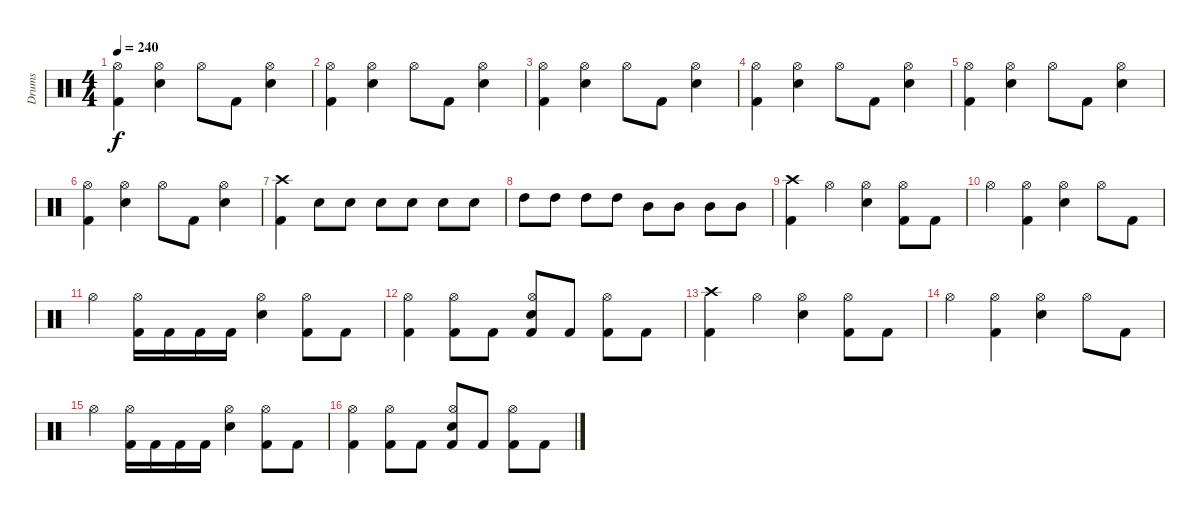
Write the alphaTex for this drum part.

\track ("Drums" "Drums") {instrument percussion}
\staff {score}
\articulation defaults
\ts (4 4)
\tempo 240
\clef neutral
\ks c
("Kick (hit) 2" "Hi-Hat (open)").4{dy f} ("Electric Snare (hit)" "Hi-Hat (open)").4 "Hi-Hat (open)".8 "Kick (hit) 2".8 ("Electric Snare (hit)" "Hi-Hat (open)").4 |
("Kick (hit) 2" "Hi-Hat (open)").4 ("Electric Snare (hit)" "Hi-Hat (open)").4 "Hi-Hat (open)".8 "Kick (hit) 2".8 ("Electric Snare (hit)" "Hi-Hat (open)").4 |
("Kick (hit) 2" "Hi-Hat (open)").4 ("Electric Snare (hit)" "Hi-Hat (open)").4 "Hi-Hat (open)".8 "Kick (hit) 2".8 ("Electric Snare (hit)" "Hi-Hat (open)").4 |
("Kick (hit) 2" "Hi-Hat (open)").4 ("Electric Snare (hit)" "Hi-Hat (open)").4 "Hi-Hat (open)".8 "Kick (hit) 2".8 ("Electric Snare (hit)" "Hi-Hat (open)").4 |
("Kick (hit) 2" "Hi-Hat (open)").4 ("Electric Snare (hit)" "Hi-Hat (open)").4 "Hi-Hat (open)".8 "Kick (hit) 2".8 ("Electric Snare (hit)" "Hi-Hat (open)").4 |
("Kick (hit) 2" "Hi-Hat (open)").4 ("Electric Snare (hit)" "Hi-Hat (open)").4 "Hi-Hat (open)".8 "Kick (hit) 2".8 ("Electric Snare (hit)" "Hi-Hat (open)").4 |
("Kick (hit) 2" "Crash high (hit)").4 "Electric Snare (hit)".8 "Electric Snare (hit)".8 "Electric Snare (hit)".8 "Electric Snare (hit)".8 "Electric Snare (hit)".8 "Electric Snare (hit)".8 |
"High Tom (hit)".8 "High Tom (hit)".8 "High Tom (hit)".8 "High Tom (hit)".8 "Mid Tom (hit)".8 "Mid Tom (hit)".8 "Mid Tom (hit)".8 "Mid Tom (hit)".8 |
("Kick (hit) 2" "Crash high (hit)").4 "Hi-Hat (open)".4 ("Electric Snare (hit)" "Hi-Hat (open)").4 ("Kick (hit) 2" "Hi-Hat (open)").8 "Kick (hit) 2".8 |
"Hi-Hat (open)".4 ("Kick (hit) 2" "Hi-Hat (open)").4 ("Electric Snare (hit)" "Hi-Hat (open)").4 "Hi-Hat (open)".8 "Kick (hit) 2".8 |
"Hi-Hat (open)".4 ("Kick (hit) 2" "Hi-Hat (open)").16 "Kick (hit) 2".16 "Kick (hit) 2".16 "Kick (hit) 2".16 ("Electric Snare (hit)" "Hi-Hat (open)").4 ("Kick (hit) 2" "Hi-Hat (open)").8 "Kick (hit) 2".8 |
("Kick (hit) 2" "Hi-Hat (open)").4 ("Kick (hit) 2" "Hi-Hat (open)").8 "Kick (hit) 2".8 ("Kick (hit) 2" "Electric Snare (hit)" "Hi-Hat (open)").8 "Kick (hit) 2".8 ("Kick (hit) 2" "Hi-Hat (open)").8 "Kick (hit) 2".8 |
("Kick (hit) 2" "Crash high (hit)").4 "Hi-Hat (open)".4 ("Electric Snare (hit)" "Hi-Hat (open)").4 ("Kick (hit) 2" "Hi-Hat (open)").8 "Kick (hit) 2".8 |
"Hi-Hat (open)".4 ("Kick (hit) 2" "Hi-Hat (open)").4 ("Electric Snare (hit)" "Hi-Hat (open)").4 "Hi-Hat (open)".8 "Kick (hit) 2".8 |
"Hi-Hat (open)".4 ("Kick (hit) 2" "Hi-Hat (open)").16 "Kick (hit) 2".16 "Kick (hit) 2".16 "Kick (hit) 2".16 ("Electric Snare (hit)" "Hi-Hat (open)").4 ("Kick (hit) 2" "Hi-Hat (open)").8 "Kick (hit) 2".8 |
("Kick (hit) 2" "Hi-Hat (open)").4 ("Kick (hit) 2" "Hi-Hat (open)").8 "Kick (hit) 2".8 ("Kick (hit) 2" "Electric Snare (hit)" "Hi-Hat (open)").8 "Kick (hit) 2".8 ("Kick (hit) 2" "Hi-Hat (open)").8 "Kick (hit) 2".8
